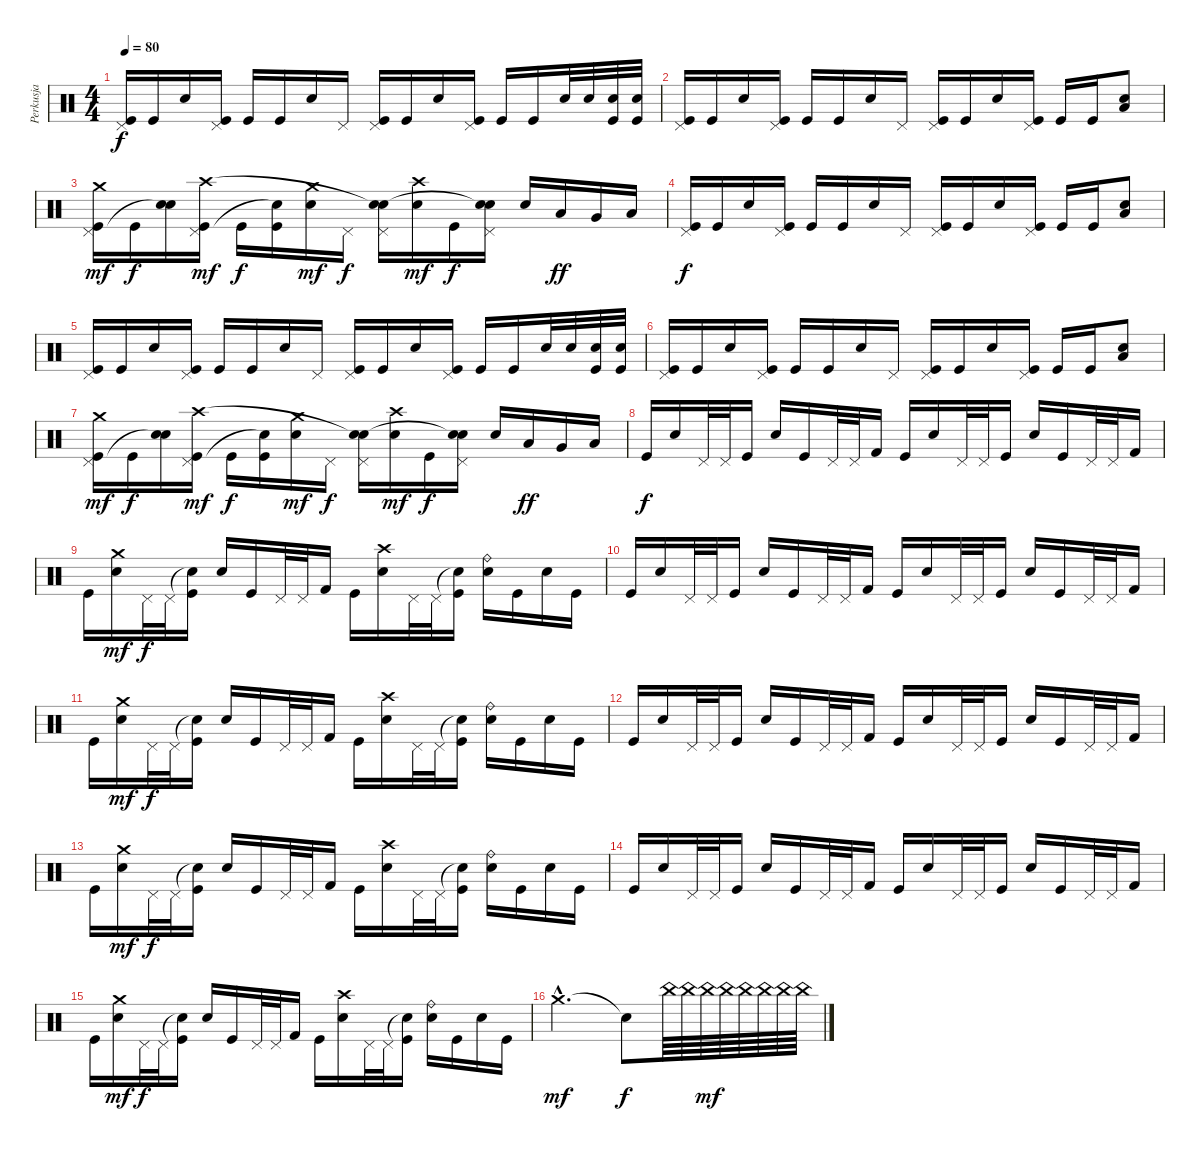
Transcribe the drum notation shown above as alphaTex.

\track ("Perkusja" "Perkusja") {instrument percussion}
\staff {score}
\articulation defaults
\ts (4 4)
\tempo 80
\clef neutral
\ks c
("Kick (hit)" "Pedal Hi-Hat (hit)").16{dy f} "Kick (hit)".16 "Electric Snare (hit)".16 ("Kick (hit)" "Pedal Hi-Hat (hit)").16 "Kick (hit)".16 "Kick (hit)".16 "Electric Snare (hit)".16 "Pedal Hi-Hat (hit)".16 ("Kick (hit)" "Pedal Hi-Hat (hit)").16 "Kick (hit)".16 "Electric Snare (hit)".16 ("Kick (hit)" "Pedal Hi-Hat (hit)").16 "Kick (hit)".16 "Kick (hit)".16 "Electric Snare (hit)".32 "Electric Snare (hit)".32 ("Electric Snare (hit)" "Kick (hit)").32 ("Electric Snare (hit)" "Kick (hit)").32 |
("Kick (hit)" "Pedal Hi-Hat (hit)").16 "Kick (hit)".16 "Electric Snare (hit)".16 ("Kick (hit)" "Pedal Hi-Hat (hit)").16 "Kick (hit)".16 "Kick (hit)".16 "Electric Snare (hit)".16 "Pedal Hi-Hat (hit)".16 ("Kick (hit)" "Pedal Hi-Hat (hit)").16 "Kick (hit)".16 "Electric Snare (hit)".16 ("Kick (hit)" "Pedal Hi-Hat (hit)").16 "Kick (hit)".16 "Kick (hit)".16 ("Electric Snare (hit)" "Low Tom (hit)").8 |
("Kick (hit)" "Pedal Hi-Hat (hit)" "Crash medium (hit)").16{dy mf} "Kick (hit)".16{dy f} ("Electric Snare (hit)" "Snare (hit)"{t}).16 ("Kick (hit)" "Pedal Hi-Hat (hit)" "Crash high (hit)").16{dy mf} "Kick (hit)".16{dy f} ("Kick (hit)" "Snare (hit)"{t}).16 ("Electric Snare (hit)" "Crash medium (hit)").16{dy mf} "Pedal Hi-Hat (hit)".16{dy f} ("Electric Snare (hit)" "Pedal Hi-Hat (hit)" "Snare (hit)"{t}).16 ("Snare (hit) 2" "Crash high (hit)").16{dy mf} "Kick (hit)".16{dy f} ("Electric Snare (hit)" "Pedal Hi-Hat (hit)" "Snare (hit)"{t}).16 "Snare (hit) 2".16 "Low Tom (hit)".16{dy ff} "Very Low Tom (hit)".16 "Low Floor Tom (hit)".16 |
("Kick (hit)" "Pedal Hi-Hat (hit)").16{dy f} "Kick (hit)".16 "Electric Snare (hit)".16 ("Kick (hit)" "Pedal Hi-Hat (hit)").16 "Kick (hit)".16 "Kick (hit)".16 "Electric Snare (hit)".16 "Pedal Hi-Hat (hit)".16 ("Kick (hit)" "Pedal Hi-Hat (hit)").16 "Kick (hit)".16 "Electric Snare (hit)".16 ("Kick (hit)" "Pedal Hi-Hat (hit)").16 "Kick (hit)".16 "Kick (hit)".16 ("Electric Snare (hit)" "Low Tom (hit)").8 |
("Kick (hit)" "Pedal Hi-Hat (hit)").16 "Kick (hit)".16 "Electric Snare (hit)".16 ("Kick (hit)" "Pedal Hi-Hat (hit)").16 "Kick (hit)".16 "Kick (hit)".16 "Electric Snare (hit)".16 "Pedal Hi-Hat (hit)".16 ("Kick (hit)" "Pedal Hi-Hat (hit)").16 "Kick (hit)".16 "Electric Snare (hit)".16 ("Kick (hit)" "Pedal Hi-Hat (hit)").16 "Kick (hit)".16 "Kick (hit)".16 "Electric Snare (hit)".32 "Electric Snare (hit)".32 ("Electric Snare (hit)" "Kick (hit)").32 ("Electric Snare (hit)" "Kick (hit)").32 |
("Kick (hit)" "Pedal Hi-Hat (hit)").16 "Kick (hit)".16 "Electric Snare (hit)".16 ("Kick (hit)" "Pedal Hi-Hat (hit)").16 "Kick (hit)".16 "Kick (hit)".16 "Electric Snare (hit)".16 "Pedal Hi-Hat (hit)".16 ("Kick (hit)" "Pedal Hi-Hat (hit)").16 "Kick (hit)".16 "Electric Snare (hit)".16 ("Kick (hit)" "Pedal Hi-Hat (hit)").16 "Kick (hit)".16 "Kick (hit)".16 ("Electric Snare (hit)" "Low Tom (hit)").8 |
("Kick (hit)" "Pedal Hi-Hat (hit)" "Crash medium (hit)").16{dy mf} "Kick (hit)".16{dy f} ("Electric Snare (hit)" "Snare (hit)"{t}).16 ("Kick (hit)" "Pedal Hi-Hat (hit)" "Crash high (hit)").16{dy mf} "Kick (hit)".16{dy f} ("Kick (hit)" "Snare (hit)"{t}).16 ("Electric Snare (hit)" "Crash medium (hit)").16{dy mf} "Pedal Hi-Hat (hit)".16{dy f} ("Electric Snare (hit)" "Pedal Hi-Hat (hit)" "Snare (hit)"{t}).16 ("Snare (hit) 2" "Crash high (hit)").16{dy mf} "Kick (hit)".16{dy f} ("Electric Snare (hit)" "Pedal Hi-Hat (hit)" "Snare (hit)"{t}).16 "Snare (hit) 2".16 "Low Tom (hit)".16{dy ff} "Very Low Tom (hit)".16 "Low Floor Tom (hit)".16 |
"Kick (hit)".16{dy f} "Electric Snare (hit)".16 "Pedal Hi-Hat (hit)".32 "Pedal Hi-Hat (hit)".32 "Kick (hit)".16 "Electric Snare (hit)".16 "Kick (hit)".16 "Pedal Hi-Hat (hit)".32 "Pedal Hi-Hat (hit)".32 "Kick (hit) 2".16 "Kick (hit)".16 "Electric Snare (hit)".16 "Pedal Hi-Hat (hit)".32 "Pedal Hi-Hat (hit)".32 "Kick (hit)".16 "Electric Snare (hit)".16 "Kick (hit)".16 "Pedal Hi-Hat (hit)".32 "Pedal Hi-Hat (hit)".32 "Kick (hit) 2".16 |
"Kick (hit)".16 ("Electric Snare (hit)" "Crash medium (hit)").16{dy mf} "Pedal Hi-Hat (hit)".32{dy f} "Pedal Hi-Hat (hit)".32 ("Snare (hit)"{t} "Kick (hit)").16 "Electric Snare (hit)".16 "Kick (hit)".16 "Pedal Hi-Hat (hit)".32 "Pedal Hi-Hat (hit)".32 "Kick (hit) 2".16 "Kick (hit)".16 ("Electric Snare (hit)" "Crash high (hit)").16 "Pedal Hi-Hat (hit)".32 "Pedal Hi-Hat (hit)".32 ("Snare (hit)"{t} "Kick (hit)").16 ("Electric Snare (hit)" "Ride (bell)").16 "Kick (hit)".16 "Electric Snare (hit)".16 "Kick (hit)".16 |
"Kick (hit)".16 "Electric Snare (hit)".16 "Pedal Hi-Hat (hit)".32 "Pedal Hi-Hat (hit)".32 "Kick (hit)".16 "Electric Snare (hit)".16 "Kick (hit)".16 "Pedal Hi-Hat (hit)".32 "Pedal Hi-Hat (hit)".32 "Kick (hit) 2".16 "Kick (hit)".16 "Electric Snare (hit)".16 "Pedal Hi-Hat (hit)".32 "Pedal Hi-Hat (hit)".32 "Kick (hit)".16 "Electric Snare (hit)".16 "Kick (hit)".16 "Pedal Hi-Hat (hit)".32 "Pedal Hi-Hat (hit)".32 "Kick (hit) 2".16 |
"Kick (hit)".16 ("Electric Snare (hit)" "Crash medium (hit)").16{dy mf} "Pedal Hi-Hat (hit)".32{dy f} "Pedal Hi-Hat (hit)".32 ("Snare (hit)"{t} "Kick (hit)").16 "Electric Snare (hit)".16 "Kick (hit)".16 "Pedal Hi-Hat (hit)".32 "Pedal Hi-Hat (hit)".32 "Kick (hit) 2".16 "Kick (hit)".16 ("Electric Snare (hit)" "Crash high (hit)").16 "Pedal Hi-Hat (hit)".32 "Pedal Hi-Hat (hit)".32 ("Snare (hit)"{t} "Kick (hit)").16 ("Electric Snare (hit)" "Ride (bell)").16 "Kick (hit)".16 "Electric Snare (hit)".16 "Kick (hit)".16 |
"Kick (hit)".16 "Electric Snare (hit)".16 "Pedal Hi-Hat (hit)".32 "Pedal Hi-Hat (hit)".32 "Kick (hit)".16 "Electric Snare (hit)".16 "Kick (hit)".16 "Pedal Hi-Hat (hit)".32 "Pedal Hi-Hat (hit)".32 "Kick (hit) 2".16 "Kick (hit)".16 "Electric Snare (hit)".16 "Pedal Hi-Hat (hit)".32 "Pedal Hi-Hat (hit)".32 "Kick (hit)".16 "Electric Snare (hit)".16 "Kick (hit)".16 "Pedal Hi-Hat (hit)".32 "Pedal Hi-Hat (hit)".32 "Kick (hit) 2".16 |
"Kick (hit)".16 ("Electric Snare (hit)" "Crash medium (hit)").16{dy mf} "Pedal Hi-Hat (hit)".32{dy f} "Pedal Hi-Hat (hit)".32 ("Snare (hit)"{t} "Kick (hit)").16 "Electric Snare (hit)".16 "Kick (hit)".16 "Pedal Hi-Hat (hit)".32 "Pedal Hi-Hat (hit)".32 "Kick (hit) 2".16 "Kick (hit)".16 ("Electric Snare (hit)" "Crash high (hit)").16 "Pedal Hi-Hat (hit)".32 "Pedal Hi-Hat (hit)".32 ("Snare (hit)"{t} "Kick (hit)").16 ("Electric Snare (hit)" "Ride (bell)").16 "Kick (hit)".16 "Electric Snare (hit)".16 "Kick (hit)".16 |
"Kick (hit)".16 "Electric Snare (hit)".16 "Pedal Hi-Hat (hit)".32 "Pedal Hi-Hat (hit)".32 "Kick (hit)".16 "Electric Snare (hit)".16 "Kick (hit)".16 "Pedal Hi-Hat (hit)".32 "Pedal Hi-Hat (hit)".32 "Kick (hit) 2".16 "Kick (hit)".16 "Electric Snare (hit)".16 "Pedal Hi-Hat (hit)".32 "Pedal Hi-Hat (hit)".32 "Kick (hit)".16 "Electric Snare (hit)".16 "Kick (hit)".16 "Pedal Hi-Hat (hit)".32 "Pedal Hi-Hat (hit)".32 "Kick (hit) 2".16 |
"Kick (hit)".16 ("Electric Snare (hit)" "Crash medium (hit)").16{dy mf} "Pedal Hi-Hat (hit)".32{dy f} "Pedal Hi-Hat (hit)".32 ("Snare (hit)"{t} "Kick (hit)").16 "Electric Snare (hit)".16 "Kick (hit)".16 "Pedal Hi-Hat (hit)".32 "Pedal Hi-Hat (hit)".32 "Kick (hit) 2".16 "Kick (hit)".16 ("Electric Snare (hit)" "Crash high (hit)").16 "Pedal Hi-Hat (hit)".32 "Pedal Hi-Hat (hit)".32 ("Snare (hit)"{t} "Kick (hit)").16 ("Electric Snare (hit)" "Ride (bell)").16 "Kick (hit)".16 "Electric Snare (hit)".16 "Kick (hit)".16 |
"Crash medium (hit)"{hac}.2{d dy mf} "Snare (hit)"{t}.8{dy f} "China (hit)".64 "China (hit)".64 "China (hit)".64{dy mf} "China (hit)".64 "China (hit)".64 "China (hit)".64 "China (hit)".64 "China (hit)".64
